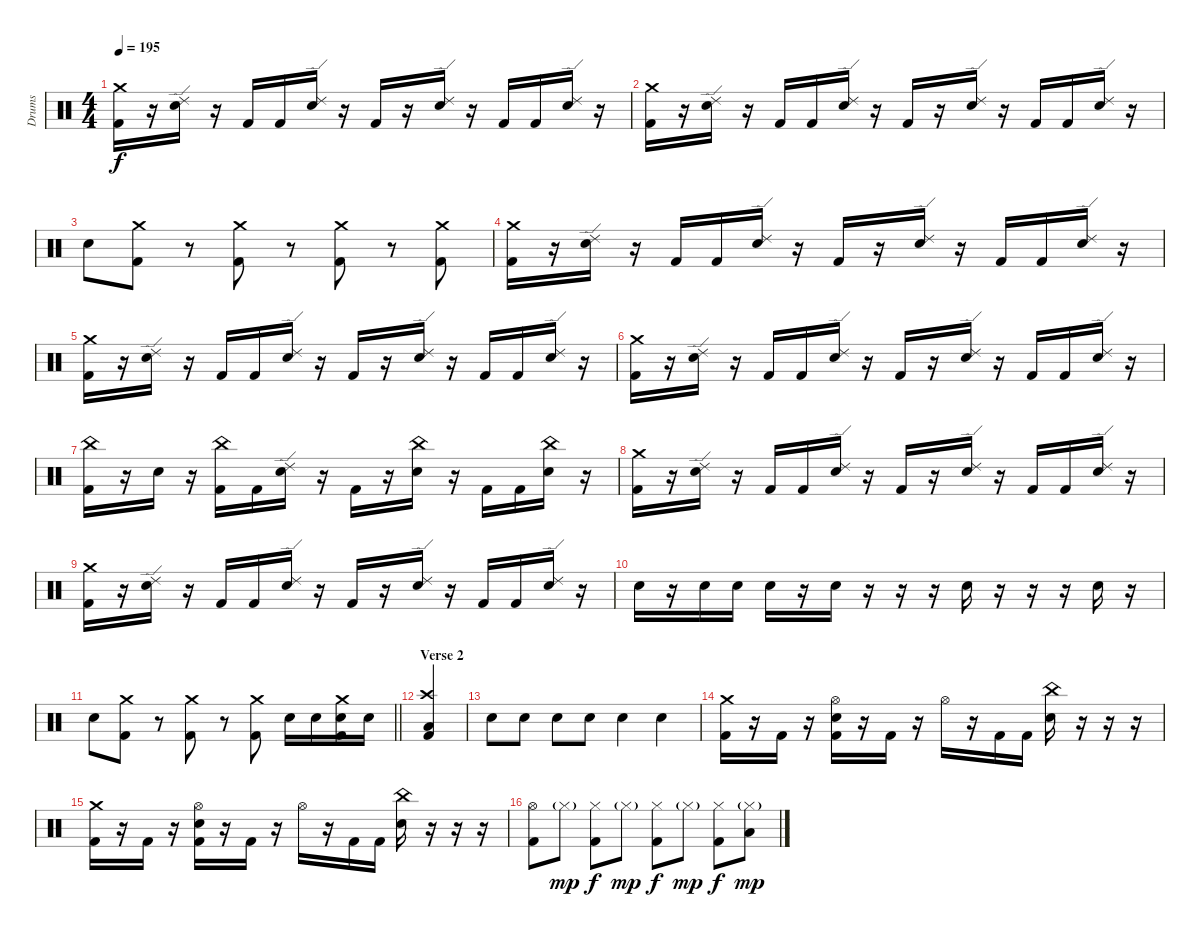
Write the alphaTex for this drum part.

\track ("Drums" "Drums") {instrument percussion}
\staff {score}
\articulation defaults
\ts (4 4)
\tempo 195
\clef neutral
\ks c
("Crash medium (hit)" "Kick (hit) 2").16{dy f} r.16 ("Ride (edge) 2" "Snare (hit) 2").16 r.16 "Kick (hit) 2".16 "Kick (hit) 2".16 ("Ride (edge) 2" "Snare (hit) 2").16 r.16 "Kick (hit) 2".16 r.16 ("Ride (edge) 2" "Snare (hit) 2").16 r.16 "Kick (hit) 2".16 "Kick (hit) 2".16 ("Ride (edge) 2" "Snare (hit) 2").16 r.16 |
("Crash medium (hit)" "Kick (hit) 2").16 r.16 ("Ride (edge) 2" "Snare (hit) 2").16 r.16 "Kick (hit) 2".16 "Kick (hit) 2".16 ("Ride (edge) 2" "Snare (hit) 2").16 r.16 "Kick (hit) 2".16 r.16 ("Ride (edge) 2" "Snare (hit) 2").16 r.16 "Kick (hit) 2".16 "Kick (hit) 2".16 ("Ride (edge) 2" "Snare (hit) 2").16 r.16 |
"Snare (hit) 2".8 ("Crash medium (hit)" "Kick (hit) 2").8 r.8 ("Crash medium (hit)" "Kick (hit) 2").8 r.8 ("Crash medium (hit)" "Kick (hit) 2").8 r.8 ("Crash medium (hit)" "Kick (hit) 2").8 |
("Crash medium (hit)" "Kick (hit) 2").16 r.16 ("Ride (edge) 2" "Snare (hit) 2").16 r.16 "Kick (hit) 2".16 "Kick (hit) 2".16 ("Ride (edge) 2" "Snare (hit) 2").16 r.16 "Kick (hit) 2".16 r.16 ("Ride (edge) 2" "Snare (hit) 2").16 r.16 "Kick (hit) 2".16 "Kick (hit) 2".16 ("Ride (edge) 2" "Snare (hit) 2").16 r.16 |
("Crash medium (hit)" "Kick (hit) 2").16 r.16 ("Ride (edge) 2" "Snare (hit) 2").16 r.16 "Kick (hit) 2".16 "Kick (hit) 2".16 ("Ride (edge) 2" "Snare (hit) 2").16 r.16 "Kick (hit) 2".16 r.16 ("Ride (edge) 2" "Snare (hit) 2").16 r.16 "Kick (hit) 2".16 "Kick (hit) 2".16 ("Ride (edge) 2" "Snare (hit) 2").16 r.16 |
("Crash medium (hit)" "Kick (hit) 2").16 r.16 ("Ride (edge) 2" "Snare (hit) 2").16 r.16 "Kick (hit) 2".16 "Kick (hit) 2".16 ("Ride (edge) 2" "Snare (hit) 2").16 r.16 "Kick (hit) 2".16 r.16 ("Ride (edge) 2" "Snare (hit) 2").16 r.16 "Kick (hit) 2".16 "Kick (hit) 2".16 ("Ride (edge) 2" "Snare (hit) 2").16 r.16 |
("China (hit)" "Kick (hit) 2").16 r.16 "Snare (hit) 2".16 r.16 ("China (hit)" "Kick (hit) 2").16 "Kick (hit) 2".16 ("Ride (edge) 2" "Snare (hit) 2").16 r.16 "Kick (hit) 2".16 r.16 ("China (hit)" "Snare (hit) 2").16 r.16 "Kick (hit) 2".16 "Kick (hit) 2".16 ("China (hit)" "Snare (hit) 2").16 r.16 |
("Crash medium (hit)" "Kick (hit) 2").16 r.16 ("Ride (edge) 2" "Snare (hit) 2").16 r.16 "Kick (hit) 2".16 "Kick (hit) 2".16 ("Ride (edge) 2" "Snare (hit) 2").16 r.16 "Kick (hit) 2".16 r.16 ("Ride (edge) 2" "Snare (hit) 2").16 r.16 "Kick (hit) 2".16 "Kick (hit) 2".16 ("Ride (edge) 2" "Snare (hit) 2").16 r.16 |
("Crash medium (hit)" "Kick (hit) 2").16 r.16 ("Ride (edge) 2" "Snare (hit) 2").16 r.16 "Kick (hit) 2".16 "Kick (hit) 2".16 ("Ride (edge) 2" "Snare (hit) 2").16 r.16 "Kick (hit) 2".16 r.16 ("Ride (edge) 2" "Snare (hit) 2").16 r.16 "Kick (hit) 2".16 "Kick (hit) 2".16 ("Ride (edge) 2" "Snare (hit) 2").16 r.16 |
"Snare (hit) 2".16 r.16 "Snare (hit) 2".16 "Snare (hit) 2".16 "Snare (hit) 2".16 r.16 "Snare (hit) 2".16 r.16 r.16 r.16 "Snare (hit) 2".16 r.16 r.16 r.16 "Snare (hit) 2".16 r.16 |
\barLineRight lightlight "Snare (hit) 2".8
("Crash medium (hit)" "Kick (hit) 2").8 r.8 ("Crash medium (hit)" "Kick (hit) 2").8 r.8 ("Crash medium (hit)" "Kick (hit) 2").8 "Snare (hit) 2".16 "Snare (hit) 2".16 ("Crash medium (hit)" "Snare (hit) 2" "Kick (hit) 2").16 "Snare (hit) 2".16 |
\section ("" "Verse 2")
("Crash high (hit)" "Low Floor Tom (hit)" "Kick (hit) 2").4 |
"Snare (hit) 2".8 "Snare (hit) 2".8 "Snare (hit) 2".8 "Snare (hit) 2".8 "Snare (hit) 2".4 "Snare (hit) 2".4 |
("Crash medium (hit)" "Kick (hit) 2").16 r.16 "Kick (hit) 2".16 r.16 ("Hi-Hat (open)" "Snare (hit) 2" "Kick (hit) 2").16 r.16 "Kick (hit) 2".16 r.16 "Hi-Hat (open)".16 r.16 "Kick (hit) 2".16 "Kick (hit) 2".16 ("China (hit)" "Snare (hit) 2").16 r.16 r.16 r.16 |
("Crash medium (hit)" "Kick (hit) 2").16 r.16 "Kick (hit) 2".16 r.16 ("Hi-Hat (open)" "Snare (hit) 2" "Kick (hit) 2").16 r.16 "Kick (hit) 2".16 r.16 "Hi-Hat (open)".16 r.16 "Kick (hit) 2".16 "Kick (hit) 2".16 ("China (hit)" "Snare (hit) 2").16 r.16 r.16 r.16 |
("Hi-Hat (open)" "Kick (hit) 2").8 "Hi-Hat (closed)"{g}.8{dy mp} ("Hi-Hat (closed)" "Kick (hit) 2").8{dy f} "Hi-Hat (closed)"{g}.8{dy mp} ("Hi-Hat (closed)" "Kick (hit) 2").8{dy f} "Hi-Hat (closed)"{g}.8{dy mp} ("Hi-Hat (closed)" "Kick (hit) 2").8{dy f} ("Hi-Hat (closed)"{g} "Low Tom (hit)").8{dy mp}
